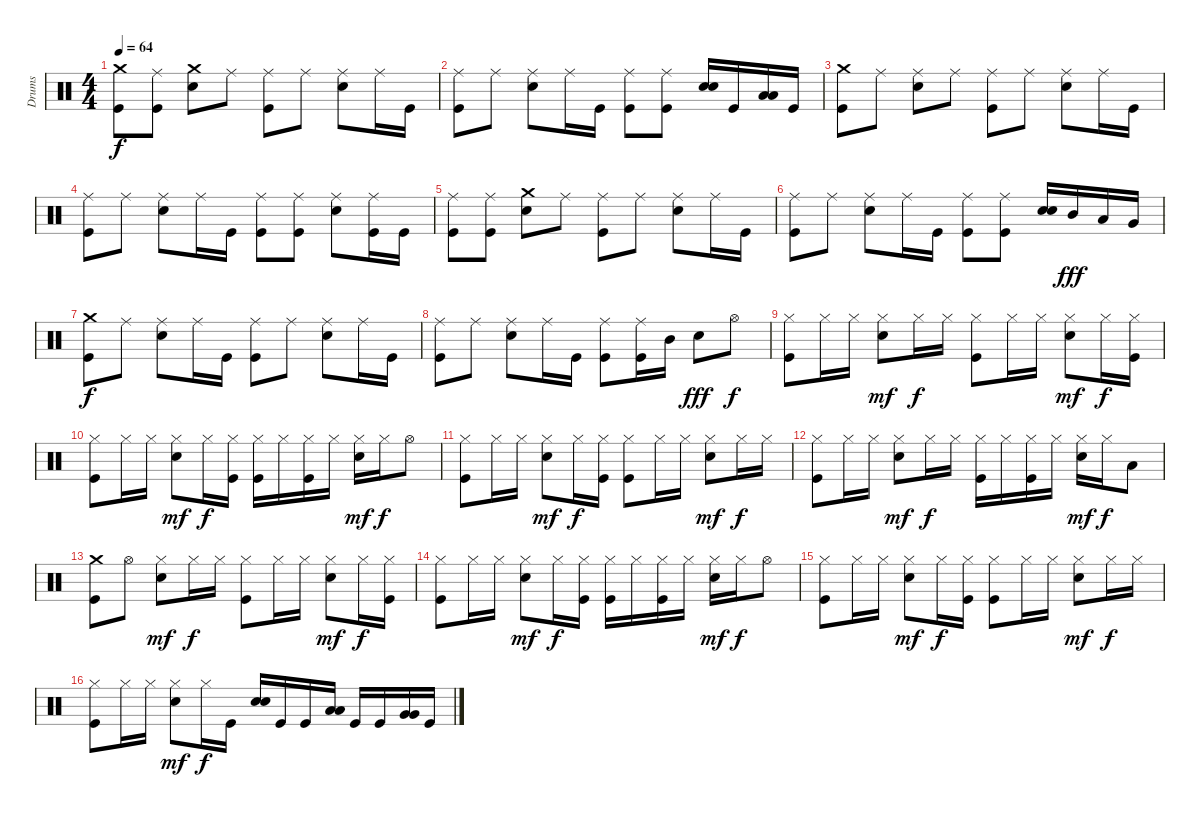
\track ("Drums" "Drums") {instrument percussion}
\staff {score}
\articulation defaults
\ts (4 4)
\tempo 64
\clef neutral
\ks c
("Crash medium (hit)" "Kick (hit)").8{dy f} ("Ride (middle)" "Kick (hit)").8 ("Crash medium (hit)" "Snare (hit) 2").8 "Ride (middle)".8 ("Ride (middle)" "Kick (hit)").8 "Ride (middle)".8 ("Ride (middle)" "Snare (hit) 2").8 "Ride (middle)".16 "Kick (hit)".16 |
("Ride (middle)" "Kick (hit)").8 "Ride (middle)".8 ("Ride (middle)" "Snare (hit) 2").8 "Ride (middle)".16 "Kick (hit)".16 ("Ride (middle)" "Kick (hit)").8 ("Ride (middle)" "Kick (hit)").8 ("Snare (hit) 2" "Snare (hit) 2").16 "Kick (hit)".16 ("Low Tom (hit)" "Low Tom (hit)").16 "Kick (hit)".16 |
("Crash medium (hit)" "Kick (hit)").8 "Ride (middle)".8 ("Ride (middle)" "Snare (hit) 2").8 "Ride (middle)".8 ("Ride (middle)" "Kick (hit)").8 "Ride (middle)".8 ("Ride (middle)" "Snare (hit) 2").8 "Ride (middle)".16 "Kick (hit)".16 |
("Ride (middle)" "Kick (hit)").8 "Ride (middle)".8 ("Ride (middle)" "Snare (hit) 2").8 "Ride (middle)".16 "Kick (hit)".16 ("Ride (middle)" "Kick (hit)").8 ("Ride (middle)" "Kick (hit)").8 ("Ride (middle)" "Snare (hit) 2").8 ("Ride (middle)" "Kick (hit)").16 "Kick (hit)".16 |
("Ride (middle)" "Kick (hit)").8 ("Ride (middle)" "Kick (hit)").8 ("Crash medium (hit)" "Snare (hit) 2").8 "Ride (middle)".8 ("Ride (middle)" "Kick (hit)").8 "Ride (middle)".8 ("Ride (middle)" "Snare (hit) 2").8 "Ride (middle)".16 "Kick (hit)".16 |
("Ride (middle)" "Kick (hit)").8 "Ride (middle)".8 ("Ride (middle)" "Snare (hit) 2").8 "Ride (middle)".16 "Kick (hit)".16 ("Ride (middle)" "Kick (hit)").8 ("Ride (middle)" "Kick (hit)").8 ("Snare (hit) 2" "Snare (hit) 2").16 "Mid Tom (hit)".16{dy fff} "Low Tom (hit)".16 "Very Low Tom (hit)".16 |
("Crash medium (hit)" "Kick (hit)").8{dy f} "Ride (middle)".8 ("Ride (middle)" "Snare (hit) 2").8 "Ride (middle)".16 "Kick (hit)".16 ("Ride (middle)" "Kick (hit)").8 "Ride (middle)".8 ("Ride (middle)" "Snare (hit) 2").8 "Ride (middle)".16 "Kick (hit)".16 |
("Ride (middle)" "Kick (hit)").8 "Ride (middle)".8 ("Ride (middle)" "Snare (hit) 2").8 "Ride (middle)".16 "Kick (hit)".16 ("Ride (middle)" "Kick (hit)").8 ("Ride (middle)" "Kick (hit)").16 "Mid Tom (hit)".16 "Snare (hit) 2".8{dy fff} "Hi-Hat (open)".8{dy f} |
("Hi-Hat (closed)" "Kick (hit)").8 "Hi-Hat (closed)".16 "Hi-Hat (closed)".16 ("Hi-Hat (closed)" "Snare (hit) 2").8{dy mf} "Hi-Hat (closed)".16{dy f} "Hi-Hat (closed)".16 ("Hi-Hat (closed)" "Kick (hit)").8 "Hi-Hat (closed)".16 "Hi-Hat (closed)".16 ("Hi-Hat (closed)" "Snare (hit) 2").8{dy mf} "Hi-Hat (closed)".16{dy f} ("Hi-Hat (closed)" "Kick (hit)").16 |
("Hi-Hat (closed)" "Kick (hit)").8 "Hi-Hat (closed)".16 "Hi-Hat (closed)".16 ("Hi-Hat (closed)" "Snare (hit) 2").8{dy mf} "Hi-Hat (closed)".16{dy f} ("Hi-Hat (closed)" "Kick (hit)").16 ("Hi-Hat (closed)" "Kick (hit)").16 "Hi-Hat (closed)".16 ("Hi-Hat (closed)" "Kick (hit)").16 "Hi-Hat (closed)".16 ("Hi-Hat (closed)" "Snare (hit) 2").16{dy mf} "Hi-Hat (closed)".16{dy f} "Hi-Hat (open)".8 |
("Hi-Hat (closed)" "Kick (hit)").8 "Hi-Hat (closed)".16 "Hi-Hat (closed)".16 ("Hi-Hat (closed)" "Snare (hit) 2").8{dy mf} "Hi-Hat (closed)".16{dy f} ("Hi-Hat (closed)" "Kick (hit)").16 ("Hi-Hat (closed)" "Kick (hit)").8 "Hi-Hat (closed)".16 "Hi-Hat (closed)".16 ("Hi-Hat (closed)" "Snare (hit) 2").8{dy mf} "Hi-Hat (closed)".16{dy f} "Hi-Hat (closed)".16 |
("Hi-Hat (closed)" "Kick (hit)").8 "Hi-Hat (closed)".16 "Hi-Hat (closed)".16 ("Hi-Hat (closed)" "Snare (hit) 2").8{dy mf} "Hi-Hat (closed)".16{dy f} "Hi-Hat (closed)".16 ("Hi-Hat (closed)" "Kick (hit)").16 "Hi-Hat (closed)".16 ("Hi-Hat (closed)" "Kick (hit)").16 "Hi-Hat (closed)".16 ("Hi-Hat (closed)" "Snare (hit) 2").16{dy mf} "Hi-Hat (closed)".16{dy f} "Low Tom (hit)".8 |
("Crash medium (hit)" "Kick (hit)").8 "Hi-Hat (open)".8 ("Hi-Hat (closed)" "Snare (hit) 2").8{dy mf} "Hi-Hat (closed)".16{dy f} "Hi-Hat (closed)".16 ("Hi-Hat (closed)" "Kick (hit)").8 "Hi-Hat (closed)".16 "Hi-Hat (closed)".16 ("Hi-Hat (closed)" "Snare (hit) 2").8{dy mf} "Hi-Hat (closed)".16{dy f} ("Hi-Hat (closed)" "Kick (hit)").16 |
("Hi-Hat (closed)" "Kick (hit)").8 "Hi-Hat (closed)".16 "Hi-Hat (closed)".16 ("Hi-Hat (closed)" "Snare (hit) 2").8{dy mf} "Hi-Hat (closed)".16{dy f} ("Hi-Hat (closed)" "Kick (hit)").16 ("Hi-Hat (closed)" "Kick (hit)").16 "Hi-Hat (closed)".16 ("Hi-Hat (closed)" "Kick (hit)").16 "Hi-Hat (closed)".16 ("Hi-Hat (closed)" "Snare (hit) 2").16{dy mf} "Hi-Hat (closed)".16{dy f} "Hi-Hat (open)".8 |
("Hi-Hat (closed)" "Kick (hit)").8 "Hi-Hat (closed)".16 "Hi-Hat (closed)".16 ("Hi-Hat (closed)" "Snare (hit) 2").8{dy mf} "Hi-Hat (closed)".16{dy f} ("Hi-Hat (closed)" "Kick (hit)").16 ("Hi-Hat (closed)" "Kick (hit)").8 "Hi-Hat (closed)".16 "Hi-Hat (closed)".16 ("Hi-Hat (closed)" "Snare (hit) 2").8{dy mf} "Hi-Hat (closed)".16{dy f} "Hi-Hat (closed)".16 |
("Hi-Hat (closed)" "Kick (hit)").8 "Hi-Hat (closed)".16 "Hi-Hat (closed)".16 ("Hi-Hat (closed)" "Snare (hit) 2").8{dy mf} "Hi-Hat (closed)".16{dy f} "Kick (hit)".16 ("Snare (hit) 2" "Snare (hit) 2").16 "Kick (hit)".16 "Kick (hit)".16 ("Low Tom (hit)" "Low Tom (hit)").16 "Kick (hit)".16 "Kick (hit)".16 ("Very Low Tom (hit)" "Very Low Tom (hit)").16 "Kick (hit)".16
